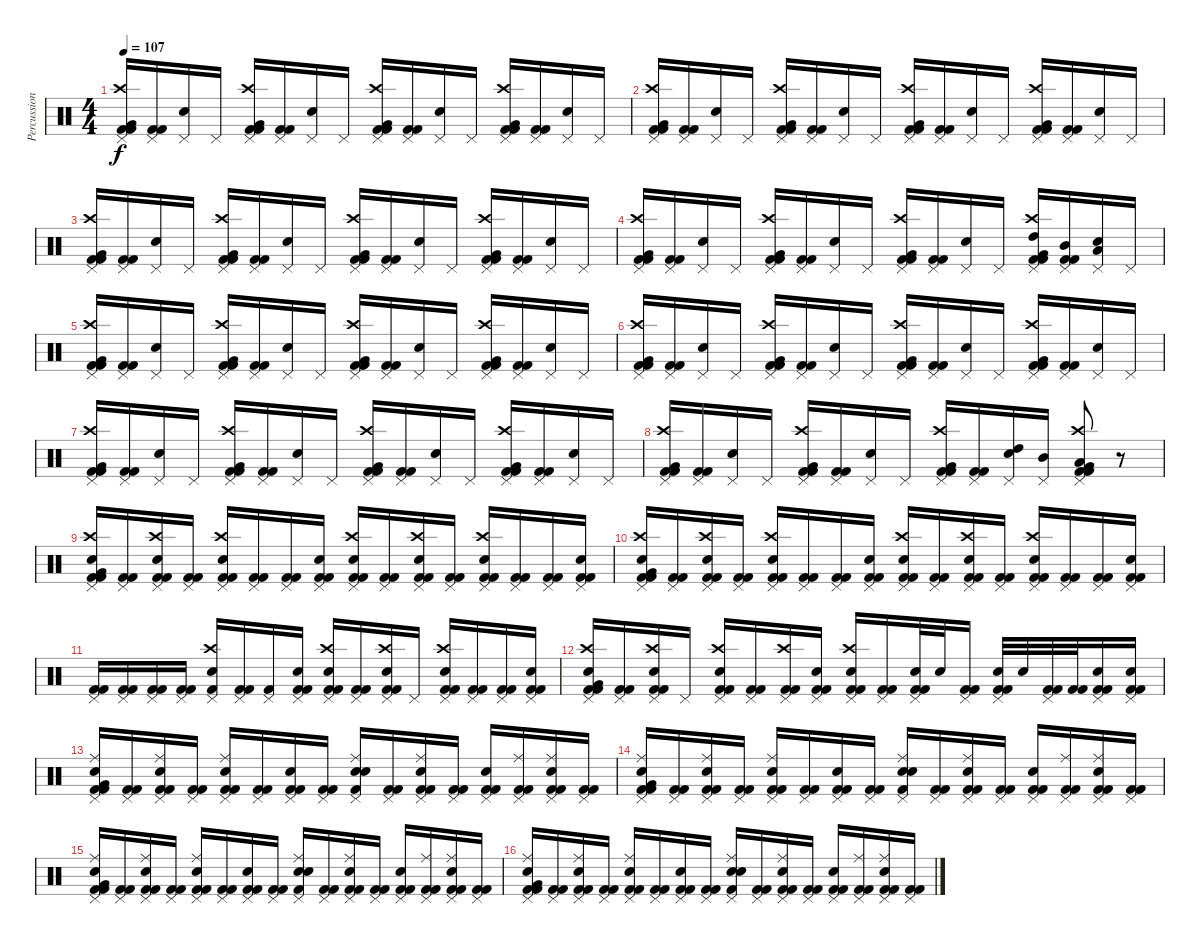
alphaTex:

\track ("Percussion" "Percussion") {instrument percussion}
\staff {score}
\articulation defaults
\ts (4 4)
\tempo 107
\clef neutral
\ks c
("Pedal Hi-Hat (hit)" "Crash high (hit)" "Very Low Tom (hit)" "Kick (hit) 2" "Kick (hit) 2").16{dy f} ("Pedal Hi-Hat (hit)" "Kick (hit) 2" "Kick (hit) 2").16 ("Pedal Hi-Hat (hit)" "Electric Snare (hit)").16 "Pedal Hi-Hat (hit)".16 ("Pedal Hi-Hat (hit)" "Crash high (hit)" "Very Low Tom (hit)" "Kick (hit) 2" "Kick (hit) 2").16 ("Pedal Hi-Hat (hit)" "Kick (hit) 2" "Kick (hit) 2").16 ("Pedal Hi-Hat (hit)" "Electric Snare (hit)").16 "Pedal Hi-Hat (hit)".16 ("Pedal Hi-Hat (hit)" "Crash high (hit)" "Very Low Tom (hit)" "Kick (hit) 2" "Kick (hit) 2").16 ("Pedal Hi-Hat (hit)" "Kick (hit) 2" "Kick (hit) 2").16 ("Pedal Hi-Hat (hit)" "Electric Snare (hit)").16 "Pedal Hi-Hat (hit)".16 ("Pedal Hi-Hat (hit)" "Crash high (hit)" "Very Low Tom (hit)" "Kick (hit) 2" "Kick (hit) 2").16 ("Pedal Hi-Hat (hit)" "Kick (hit) 2" "Kick (hit) 2").16 ("Pedal Hi-Hat (hit)" "Electric Snare (hit)").16 "Pedal Hi-Hat (hit)".16 |
("Pedal Hi-Hat (hit)" "Crash high (hit)" "Very Low Tom (hit)" "Kick (hit) 2" "Kick (hit) 2").16 ("Pedal Hi-Hat (hit)" "Kick (hit) 2" "Kick (hit) 2").16 ("Pedal Hi-Hat (hit)" "Electric Snare (hit)").16 "Pedal Hi-Hat (hit)".16 ("Pedal Hi-Hat (hit)" "Crash high (hit)" "Very Low Tom (hit)" "Kick (hit) 2" "Kick (hit) 2").16 ("Pedal Hi-Hat (hit)" "Kick (hit) 2" "Kick (hit) 2").16 ("Pedal Hi-Hat (hit)" "Electric Snare (hit)").16 "Pedal Hi-Hat (hit)".16 ("Pedal Hi-Hat (hit)" "Crash high (hit)" "Very Low Tom (hit)" "Kick (hit) 2" "Kick (hit) 2").16 ("Pedal Hi-Hat (hit)" "Kick (hit) 2" "Kick (hit) 2").16 ("Pedal Hi-Hat (hit)" "Electric Snare (hit)").16 "Pedal Hi-Hat (hit)".16 ("Pedal Hi-Hat (hit)" "Crash high (hit)" "Very Low Tom (hit)" "Kick (hit) 2" "Kick (hit) 2").16 ("Pedal Hi-Hat (hit)" "Kick (hit) 2" "Kick (hit) 2").16 ("Pedal Hi-Hat (hit)" "Electric Snare (hit)").16 "Pedal Hi-Hat (hit)".16 |
("Pedal Hi-Hat (hit)" "Crash high (hit)" "Very Low Tom (hit)" "Kick (hit) 2" "Kick (hit) 2").16 ("Pedal Hi-Hat (hit)" "Kick (hit) 2" "Kick (hit) 2").16 ("Pedal Hi-Hat (hit)" "Electric Snare (hit)").16 "Pedal Hi-Hat (hit)".16 ("Pedal Hi-Hat (hit)" "Crash high (hit)" "Very Low Tom (hit)" "Kick (hit) 2" "Kick (hit) 2").16 ("Pedal Hi-Hat (hit)" "Kick (hit) 2" "Kick (hit) 2").16 ("Pedal Hi-Hat (hit)" "Electric Snare (hit)").16 "Pedal Hi-Hat (hit)".16 ("Pedal Hi-Hat (hit)" "Crash high (hit)" "Very Low Tom (hit)" "Kick (hit) 2" "Kick (hit) 2").16 ("Pedal Hi-Hat (hit)" "Kick (hit) 2" "Kick (hit) 2").16 ("Pedal Hi-Hat (hit)" "Electric Snare (hit)").16 "Pedal Hi-Hat (hit)".16 ("Pedal Hi-Hat (hit)" "Crash high (hit)" "Very Low Tom (hit)" "Kick (hit) 2" "Kick (hit) 2").16 ("Pedal Hi-Hat (hit)" "Kick (hit) 2" "Kick (hit) 2").16 ("Pedal Hi-Hat (hit)" "Electric Snare (hit)").16 "Pedal Hi-Hat (hit)".16 |
("Pedal Hi-Hat (hit)" "Crash high (hit)" "Very Low Tom (hit)" "Kick (hit) 2" "Kick (hit) 2").16 ("Pedal Hi-Hat (hit)" "Kick (hit) 2" "Kick (hit) 2").16 ("Pedal Hi-Hat (hit)" "Electric Snare (hit)").16 "Pedal Hi-Hat (hit)".16 ("Pedal Hi-Hat (hit)" "Crash high (hit)" "Very Low Tom (hit)" "Kick (hit) 2" "Kick (hit) 2").16 ("Pedal Hi-Hat (hit)" "Kick (hit) 2" "Kick (hit) 2").16 ("Pedal Hi-Hat (hit)" "Electric Snare (hit)").16 "Pedal Hi-Hat (hit)".16 ("Pedal Hi-Hat (hit)" "Crash high (hit)" "Very Low Tom (hit)" "Kick (hit) 2" "Kick (hit) 2").16 ("Pedal Hi-Hat (hit)" "Kick (hit) 2" "Kick (hit) 2").16 ("Pedal Hi-Hat (hit)" "Electric Snare (hit)").16 "Pedal Hi-Hat (hit)".16 ("Pedal Hi-Hat (hit)" "Crash high (hit)" "Very Low Tom (hit)" "Kick (hit) 2" "Kick (hit) 2" "High Tom (hit)").16 ("Pedal Hi-Hat (hit)" "Kick (hit) 2" "Kick (hit) 2" "Mid Tom (hit)").16 ("Pedal Hi-Hat (hit)" "Electric Snare (hit)" "Low Tom (hit)").16 "Pedal Hi-Hat (hit)".16 |
("Pedal Hi-Hat (hit)" "Crash high (hit)" "Very Low Tom (hit)" "Kick (hit) 2" "Kick (hit) 2").16 ("Pedal Hi-Hat (hit)" "Kick (hit) 2" "Kick (hit) 2").16 ("Pedal Hi-Hat (hit)" "Electric Snare (hit)").16 "Pedal Hi-Hat (hit)".16 ("Pedal Hi-Hat (hit)" "Crash high (hit)" "Very Low Tom (hit)" "Kick (hit) 2" "Kick (hit) 2").16 ("Pedal Hi-Hat (hit)" "Kick (hit) 2" "Kick (hit) 2").16 ("Pedal Hi-Hat (hit)" "Electric Snare (hit)").16 "Pedal Hi-Hat (hit)".16 ("Pedal Hi-Hat (hit)" "Crash high (hit)" "Very Low Tom (hit)" "Kick (hit) 2" "Kick (hit) 2").16 ("Pedal Hi-Hat (hit)" "Kick (hit) 2" "Kick (hit) 2").16 ("Pedal Hi-Hat (hit)" "Electric Snare (hit)").16 "Pedal Hi-Hat (hit)".16 ("Pedal Hi-Hat (hit)" "Crash high (hit)" "Very Low Tom (hit)" "Kick (hit) 2" "Kick (hit) 2").16 ("Pedal Hi-Hat (hit)" "Kick (hit) 2" "Kick (hit) 2").16 ("Pedal Hi-Hat (hit)" "Electric Snare (hit)").16 "Pedal Hi-Hat (hit)".16 |
("Pedal Hi-Hat (hit)" "Crash high (hit)" "Very Low Tom (hit)" "Kick (hit) 2" "Kick (hit) 2").16 ("Pedal Hi-Hat (hit)" "Kick (hit) 2" "Kick (hit) 2").16 ("Pedal Hi-Hat (hit)" "Electric Snare (hit)").16 "Pedal Hi-Hat (hit)".16 ("Pedal Hi-Hat (hit)" "Crash high (hit)" "Very Low Tom (hit)" "Kick (hit) 2" "Kick (hit) 2").16 ("Pedal Hi-Hat (hit)" "Kick (hit) 2" "Kick (hit) 2").16 ("Pedal Hi-Hat (hit)" "Electric Snare (hit)").16 "Pedal Hi-Hat (hit)".16 ("Pedal Hi-Hat (hit)" "Crash high (hit)" "Very Low Tom (hit)" "Kick (hit) 2" "Kick (hit) 2").16 ("Pedal Hi-Hat (hit)" "Kick (hit) 2" "Kick (hit) 2").16 ("Pedal Hi-Hat (hit)" "Electric Snare (hit)").16 "Pedal Hi-Hat (hit)".16 ("Pedal Hi-Hat (hit)" "Crash high (hit)" "Very Low Tom (hit)" "Kick (hit) 2" "Kick (hit) 2").16 ("Pedal Hi-Hat (hit)" "Kick (hit) 2" "Kick (hit) 2").16 ("Pedal Hi-Hat (hit)" "Electric Snare (hit)").16 "Pedal Hi-Hat (hit)".16 |
("Pedal Hi-Hat (hit)" "Crash high (hit)" "Very Low Tom (hit)" "Kick (hit) 2" "Kick (hit) 2").16 ("Pedal Hi-Hat (hit)" "Kick (hit) 2" "Kick (hit) 2").16 ("Pedal Hi-Hat (hit)" "Electric Snare (hit)").16 "Pedal Hi-Hat (hit)".16 ("Pedal Hi-Hat (hit)" "Crash high (hit)" "Very Low Tom (hit)" "Kick (hit) 2" "Kick (hit) 2").16 ("Pedal Hi-Hat (hit)" "Kick (hit) 2" "Kick (hit) 2").16 ("Pedal Hi-Hat (hit)" "Electric Snare (hit)").16 "Pedal Hi-Hat (hit)".16 ("Pedal Hi-Hat (hit)" "Crash high (hit)" "Very Low Tom (hit)" "Kick (hit) 2" "Kick (hit) 2").16 ("Pedal Hi-Hat (hit)" "Kick (hit) 2" "Kick (hit) 2").16 ("Pedal Hi-Hat (hit)" "Electric Snare (hit)").16 "Pedal Hi-Hat (hit)".16 ("Pedal Hi-Hat (hit)" "Crash high (hit)" "Very Low Tom (hit)" "Kick (hit) 2" "Kick (hit) 2").16 ("Pedal Hi-Hat (hit)" "Kick (hit) 2" "Kick (hit) 2").16 ("Pedal Hi-Hat (hit)" "Electric Snare (hit)").16 "Pedal Hi-Hat (hit)".16 |
("Pedal Hi-Hat (hit)" "Crash high (hit)" "Very Low Tom (hit)" "Kick (hit) 2" "Kick (hit) 2").16 ("Pedal Hi-Hat (hit)" "Kick (hit) 2" "Kick (hit) 2").16 ("Pedal Hi-Hat (hit)" "Electric Snare (hit)").16 "Pedal Hi-Hat (hit)".16 ("Pedal Hi-Hat (hit)" "Crash high (hit)" "Very Low Tom (hit)" "Kick (hit) 2" "Kick (hit) 2").16 ("Pedal Hi-Hat (hit)" "Kick (hit) 2" "Kick (hit) 2").16 ("Pedal Hi-Hat (hit)" "Electric Snare (hit)").16 "Pedal Hi-Hat (hit)".16 ("Pedal Hi-Hat (hit)" "Crash high (hit)" "Very Low Tom (hit)" "Kick (hit) 2" "Kick (hit) 2").16 ("Pedal Hi-Hat (hit)" "Kick (hit) 2" "Kick (hit) 2").16 ("Pedal Hi-Hat (hit)" "Electric Snare (hit)" "High Tom (hit)").16 ("Pedal Hi-Hat (hit)" "Mid Tom (hit)").16 ("Pedal Hi-Hat (hit)" "Crash high (hit)" "Very Low Tom (hit)" "Kick (hit) 2" "Kick (hit) 2" "Low Tom (hit)").8 r.8 |
("Pedal Hi-Hat (hit)" "Crash high (hit)" "Very Low Tom (hit)" "Electric Snare (hit)" "Kick (hit) 2" "Kick (hit) 2").16 ("Pedal Hi-Hat (hit)" "Kick (hit) 2" "Kick (hit) 2").16 ("Pedal Hi-Hat (hit)" "Crash high (hit)" "Electric Snare (hit)" "Kick (hit) 2" "Kick (hit) 2").16 ("Pedal Hi-Hat (hit)" "Kick (hit) 2" "Kick (hit) 2").16 ("Pedal Hi-Hat (hit)" "Crash high (hit)" "Electric Snare (hit)" "Kick (hit) 2" "Kick (hit) 2").16 ("Pedal Hi-Hat (hit)" "Kick (hit) 2" "Kick (hit) 2").16 ("Pedal Hi-Hat (hit)" "Kick (hit) 2" "Kick (hit) 2").16 ("Pedal Hi-Hat (hit)" "Electric Snare (hit)" "Kick (hit) 2" "Kick (hit) 2").16 ("Pedal Hi-Hat (hit)" "Crash high (hit)" "Electric Snare (hit)" "Kick (hit) 2" "Kick (hit) 2").16 ("Pedal Hi-Hat (hit)" "Kick (hit) 2" "Kick (hit) 2").16 ("Pedal Hi-Hat (hit)" "Crash high (hit)" "Electric Snare (hit)" "Kick (hit) 2" "Kick (hit) 2").16 ("Pedal Hi-Hat (hit)" "Kick (hit) 2" "Kick (hit) 2").16 ("Pedal Hi-Hat (hit)" "Crash high (hit)" "Electric Snare (hit)" "Kick (hit) 2" "Kick (hit) 2").16 ("Pedal Hi-Hat (hit)" "Kick (hit) 2" "Kick (hit) 2").16 ("Pedal Hi-Hat (hit)" "Kick (hit) 2" "Kick (hit) 2").16 ("Pedal Hi-Hat (hit)" "Electric Snare (hit)" "Kick (hit) 2" "Kick (hit) 2").16 |
("Pedal Hi-Hat (hit)" "Crash high (hit)" "Very Low Tom (hit)" "Electric Snare (hit)" "Kick (hit) 2" "Kick (hit) 2").16 ("Pedal Hi-Hat (hit)" "Kick (hit) 2" "Kick (hit) 2").16 ("Pedal Hi-Hat (hit)" "Crash high (hit)" "Electric Snare (hit)" "Kick (hit) 2" "Kick (hit) 2").16 ("Pedal Hi-Hat (hit)" "Kick (hit) 2" "Kick (hit) 2").16 ("Pedal Hi-Hat (hit)" "Crash high (hit)" "Electric Snare (hit)" "Kick (hit) 2" "Kick (hit) 2").16 ("Pedal Hi-Hat (hit)" "Kick (hit) 2" "Kick (hit) 2").16 ("Pedal Hi-Hat (hit)" "Kick (hit) 2" "Kick (hit) 2").16 ("Pedal Hi-Hat (hit)" "Electric Snare (hit)" "Kick (hit) 2" "Kick (hit) 2").16 ("Pedal Hi-Hat (hit)" "Crash high (hit)" "Electric Snare (hit)" "Kick (hit) 2" "Kick (hit) 2").16 ("Pedal Hi-Hat (hit)" "Kick (hit) 2" "Kick (hit) 2").16 ("Pedal Hi-Hat (hit)" "Crash high (hit)" "Electric Snare (hit)" "Kick (hit) 2" "Kick (hit) 2").16 ("Pedal Hi-Hat (hit)" "Kick (hit) 2" "Kick (hit) 2").16 ("Pedal Hi-Hat (hit)" "Crash high (hit)" "Electric Snare (hit)" "Kick (hit) 2" "Kick (hit) 2").16 ("Pedal Hi-Hat (hit)" "Kick (hit) 2" "Kick (hit) 2").16 ("Pedal Hi-Hat (hit)" "Kick (hit) 2" "Kick (hit) 2").16 ("Pedal Hi-Hat (hit)" "Electric Snare (hit)" "Kick (hit) 2" "Kick (hit) 2").16 |
("Pedal Hi-Hat (hit)" "Kick (hit) 2" "Kick (hit) 2").16 ("Pedal Hi-Hat (hit)" "Kick (hit) 2" "Kick (hit) 2").16 ("Pedal Hi-Hat (hit)" "Kick (hit) 2" "Kick (hit) 2").16 ("Pedal Hi-Hat (hit)" "Kick (hit) 2" "Kick (hit) 2").16 ("Pedal Hi-Hat (hit)" "Crash high (hit)" "Electric Snare (hit)" "Kick (hit) 2").16 ("Pedal Hi-Hat (hit)" "Kick (hit) 2" "Kick (hit) 2").16 ("Pedal Hi-Hat (hit)" "Kick (hit) 2").16 ("Pedal Hi-Hat (hit)" "Electric Snare (hit)" "Kick (hit) 2" "Kick (hit) 2").16 ("Pedal Hi-Hat (hit)" "Crash high (hit)" "Electric Snare (hit)" "Kick (hit) 2" "Kick (hit) 2").16 ("Pedal Hi-Hat (hit)" "Kick (hit) 2" "Kick (hit) 2").16 ("Pedal Hi-Hat (hit)" "Crash high (hit)" "Kick (hit) 2" "Electric Snare (hit)" "Kick (hit) 2").16 "Pedal Hi-Hat (hit)".16 ("Pedal Hi-Hat (hit)" "Crash high (hit)" "Kick (hit) 2" "Electric Snare (hit)" "Kick (hit) 2").16 ("Pedal Hi-Hat (hit)" "Kick (hit) 2" "Kick (hit) 2").16 ("Pedal Hi-Hat (hit)" "Kick (hit) 2" "Kick (hit) 2").16 ("Pedal Hi-Hat (hit)" "Kick (hit) 2" "Electric Snare (hit)" "Kick (hit) 2").16 |
("Pedal Hi-Hat (hit)" "Crash high (hit)" "Very Low Tom (hit)" "Electric Snare (hit)" "Kick (hit) 2" "Kick (hit) 2").16 ("Pedal Hi-Hat (hit)" "Kick (hit) 2" "Kick (hit) 2").16 ("Pedal Hi-Hat (hit)" "Crash high (hit)" "Electric Snare (hit)" "Kick (hit) 2" "Kick (hit) 2").16 "Pedal Hi-Hat (hit)".16 ("Pedal Hi-Hat (hit)" "Crash high (hit)" "Electric Snare (hit)" "Kick (hit) 2" "Kick (hit) 2").16 ("Pedal Hi-Hat (hit)" "Kick (hit) 2" "Kick (hit) 2").16 ("Pedal Hi-Hat (hit)" "Crash high (hit)" "Kick (hit) 2" "Kick (hit) 2").16 ("Pedal Hi-Hat (hit)" "Electric Snare (hit)" "Kick (hit) 2" "Kick (hit) 2").16 ("Pedal Hi-Hat (hit)" "Crash high (hit)" "Electric Snare (hit)" "Kick (hit) 2" "Kick (hit) 2").16 ("Pedal Hi-Hat (hit)" "Kick (hit) 2" "Kick (hit) 2").16 ("Pedal Hi-Hat (hit)" "Electric Snare (hit)" "Kick (hit) 2" "Kick (hit) 2").32 "Electric Snare (hit)".32 ("Pedal Hi-Hat (hit)" "Kick (hit) 2" "Kick (hit) 2").16 ("Pedal Hi-Hat (hit)" "Electric Snare (hit)" "Kick (hit) 2" "Kick (hit) 2").32 "Electric Snare (hit)".32 ("Pedal Hi-Hat (hit)" "Kick (hit) 2" "Kick (hit) 2").32 ("Kick (hit) 2" "Kick (hit) 2").32 ("Pedal Hi-Hat (hit)" "Electric Snare (hit)" "Kick (hit) 2" "Kick (hit) 2").16 ("Pedal Hi-Hat (hit)" "Electric Snare (hit)" "Kick (hit) 2" "Kick (hit) 2").16 |
("Pedal Hi-Hat (hit)" "Ride (middle)" "Very Low Tom (hit)" "Electric Snare (hit)" "Kick (hit) 2" "Kick (hit) 2").16 ("Pedal Hi-Hat (hit)" "Kick (hit) 2" "Kick (hit) 2").16 ("Pedal Hi-Hat (hit)" "Ride (middle)" "Electric Snare (hit)" "Kick (hit) 2" "Kick (hit) 2").16 ("Pedal Hi-Hat (hit)" "Kick (hit) 2" "Kick (hit) 2").16 ("Pedal Hi-Hat (hit)" "Ride (middle)" "Electric Snare (hit)" "Kick (hit) 2" "Kick (hit) 2").16 ("Pedal Hi-Hat (hit)" "Kick (hit) 2" "Kick (hit) 2").16 ("Pedal Hi-Hat (hit)" "Electric Snare (hit)" "Kick (hit) 2" "Kick (hit) 2").16 ("Pedal Hi-Hat (hit)" "Kick (hit) 2" "Kick (hit) 2").16 ("Pedal Hi-Hat (hit)" "Ride (middle)" "Electric Snare (hit)" "Electric Snare (hit)" "Kick (hit) 2").16 ("Pedal Hi-Hat (hit)" "Kick (hit) 2" "Kick (hit) 2").16 ("Pedal Hi-Hat (hit)" "Ride (middle)" "Electric Snare (hit)" "Kick (hit) 2" "Kick (hit) 2").16 ("Pedal Hi-Hat (hit)" "Kick (hit) 2" "Kick (hit) 2").16 ("Pedal Hi-Hat (hit)" "Electric Snare (hit)" "Kick (hit) 2" "Kick (hit) 2").16 ("Pedal Hi-Hat (hit)" "Ride (middle)" "Kick (hit) 2" "Kick (hit) 2").16 ("Pedal Hi-Hat (hit)" "Ride (middle)" "Electric Snare (hit)" "Kick (hit) 2" "Kick (hit) 2").16 ("Pedal Hi-Hat (hit)" "Kick (hit) 2" "Kick (hit) 2").16 |
("Pedal Hi-Hat (hit)" "Ride (middle)" "Very Low Tom (hit)" "Electric Snare (hit)" "Kick (hit) 2" "Kick (hit) 2").16 ("Pedal Hi-Hat (hit)" "Kick (hit) 2" "Kick (hit) 2").16 ("Pedal Hi-Hat (hit)" "Ride (middle)" "Electric Snare (hit)" "Kick (hit) 2" "Kick (hit) 2").16 ("Pedal Hi-Hat (hit)" "Kick (hit) 2" "Kick (hit) 2").16 ("Pedal Hi-Hat (hit)" "Ride (middle)" "Electric Snare (hit)" "Kick (hit) 2" "Kick (hit) 2").16 ("Pedal Hi-Hat (hit)" "Kick (hit) 2" "Kick (hit) 2").16 ("Pedal Hi-Hat (hit)" "Electric Snare (hit)" "Kick (hit) 2" "Kick (hit) 2").16 ("Pedal Hi-Hat (hit)" "Kick (hit) 2" "Kick (hit) 2").16 ("Pedal Hi-Hat (hit)" "Ride (middle)" "Electric Snare (hit)" "Electric Snare (hit)" "Kick (hit) 2").16 ("Pedal Hi-Hat (hit)" "Kick (hit) 2" "Kick (hit) 2").16 ("Pedal Hi-Hat (hit)" "Ride (middle)" "Electric Snare (hit)" "Kick (hit) 2" "Kick (hit) 2").16 ("Pedal Hi-Hat (hit)" "Kick (hit) 2" "Kick (hit) 2").16 ("Pedal Hi-Hat (hit)" "Electric Snare (hit)" "Kick (hit) 2" "Kick (hit) 2").16 ("Pedal Hi-Hat (hit)" "Ride (middle)" "Kick (hit) 2" "Kick (hit) 2").16 ("Pedal Hi-Hat (hit)" "Ride (middle)" "Electric Snare (hit)" "Kick (hit) 2" "Kick (hit) 2").16 ("Pedal Hi-Hat (hit)" "Kick (hit) 2" "Kick (hit) 2").16 |
("Pedal Hi-Hat (hit)" "Ride (middle)" "Very Low Tom (hit)" "Electric Snare (hit)" "Kick (hit) 2" "Kick (hit) 2").16 ("Pedal Hi-Hat (hit)" "Kick (hit) 2" "Kick (hit) 2").16 ("Pedal Hi-Hat (hit)" "Ride (middle)" "Electric Snare (hit)" "Kick (hit) 2" "Kick (hit) 2").16 ("Pedal Hi-Hat (hit)" "Kick (hit) 2" "Kick (hit) 2").16 ("Pedal Hi-Hat (hit)" "Ride (middle)" "Electric Snare (hit)" "Kick (hit) 2" "Kick (hit) 2").16 ("Pedal Hi-Hat (hit)" "Kick (hit) 2" "Kick (hit) 2").16 ("Pedal Hi-Hat (hit)" "Electric Snare (hit)" "Kick (hit) 2" "Kick (hit) 2").16 ("Pedal Hi-Hat (hit)" "Kick (hit) 2" "Kick (hit) 2").16 ("Pedal Hi-Hat (hit)" "Ride (middle)" "Electric Snare (hit)" "Electric Snare (hit)" "Kick (hit) 2").16 ("Pedal Hi-Hat (hit)" "Kick (hit) 2" "Kick (hit) 2").16 ("Pedal Hi-Hat (hit)" "Ride (middle)" "Electric Snare (hit)" "Kick (hit) 2" "Kick (hit) 2").16 ("Pedal Hi-Hat (hit)" "Kick (hit) 2" "Kick (hit) 2").16 ("Pedal Hi-Hat (hit)" "Electric Snare (hit)" "Kick (hit) 2" "Kick (hit) 2").16 ("Pedal Hi-Hat (hit)" "Ride (middle)" "Kick (hit) 2" "Kick (hit) 2").16 ("Pedal Hi-Hat (hit)" "Ride (middle)" "Electric Snare (hit)" "Kick (hit) 2" "Kick (hit) 2").16 ("Pedal Hi-Hat (hit)" "Kick (hit) 2" "Kick (hit) 2").16 |
("Pedal Hi-Hat (hit)" "Ride (middle)" "Very Low Tom (hit)" "Electric Snare (hit)" "Kick (hit) 2" "Kick (hit) 2").16 ("Pedal Hi-Hat (hit)" "Kick (hit) 2" "Kick (hit) 2").16 ("Pedal Hi-Hat (hit)" "Ride (middle)" "Electric Snare (hit)" "Kick (hit) 2" "Kick (hit) 2").16 ("Pedal Hi-Hat (hit)" "Kick (hit) 2" "Kick (hit) 2").16 ("Pedal Hi-Hat (hit)" "Ride (middle)" "Electric Snare (hit)" "Kick (hit) 2" "Kick (hit) 2").16 ("Pedal Hi-Hat (hit)" "Kick (hit) 2" "Kick (hit) 2").16 ("Pedal Hi-Hat (hit)" "Electric Snare (hit)" "Kick (hit) 2" "Kick (hit) 2").16 ("Pedal Hi-Hat (hit)" "Kick (hit) 2" "Kick (hit) 2").16 ("Pedal Hi-Hat (hit)" "Ride (middle)" "Electric Snare (hit)" "Electric Snare (hit)" "Kick (hit) 2").16 ("Pedal Hi-Hat (hit)" "Kick (hit) 2" "Kick (hit) 2").16 ("Pedal Hi-Hat (hit)" "Ride (middle)" "Electric Snare (hit)" "Kick (hit) 2" "Kick (hit) 2").16 ("Pedal Hi-Hat (hit)" "Kick (hit) 2" "Kick (hit) 2").16 ("Pedal Hi-Hat (hit)" "Electric Snare (hit)" "Kick (hit) 2" "Kick (hit) 2").16 ("Pedal Hi-Hat (hit)" "Ride (middle)" "Kick (hit) 2" "Kick (hit) 2").16 ("Pedal Hi-Hat (hit)" "Ride (middle)" "Electric Snare (hit)" "Kick (hit) 2" "Kick (hit) 2").16 ("Pedal Hi-Hat (hit)" "Kick (hit) 2" "Kick (hit) 2").16
